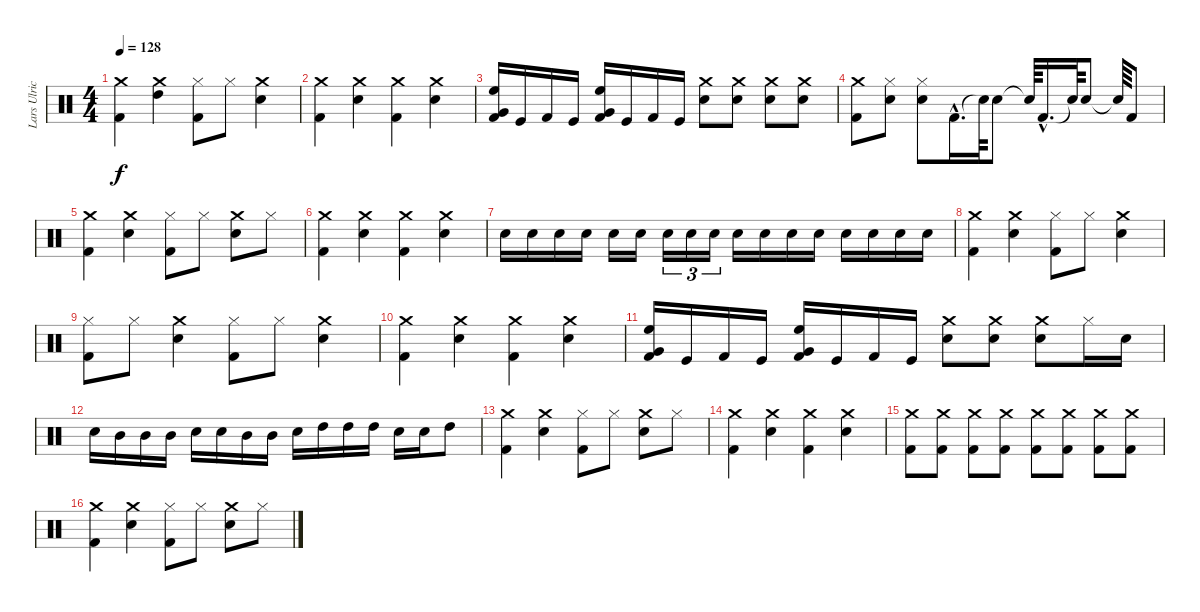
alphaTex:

\track ("Lars Ulrich (Drums)" "Lars Ulric") {instrument percussion}
\staff {score}
\articulation defaults
\ts (4 4)
\tempo 128
\clef neutral
\ks c
("Crash medium (hit)" "Kick (hit) 2").4{dy f} ("Crash medium (hit)" "High Tom (hit)").4 ("Kick (hit) 2" "Hi-Hat (closed)").8 "Hi-Hat (closed)".8 ("Crash medium (hit)" "Snare (hit) 2").4 |
("Kick (hit) 2" "Crash medium (hit)").4 ("Snare (hit) 2" "Crash medium (hit)").4 ("Kick (hit) 2" "Crash medium (hit)").4 ("Snare (hit) 2" "Crash medium (hit)").4 |
("Kick (hit) 2" "High Floor Tom (hit)" "Very Low Tom (hit)").16 "Kick (hit)".16 "Kick (hit) 2".16 "Kick (hit)".16 ("Kick (hit) 2" "High Floor Tom (hit)" "Very Low Tom (hit)").16 "Kick (hit)".16 "Kick (hit) 2".16 "Kick (hit)".16 ("Snare (hit) 2" "Crash medium (hit)").8 ("Snare (hit) 2" "Crash medium (hit)").8 ("Snare (hit) 2" "Crash medium (hit)").8 ("Snare (hit) 2" "Crash medium (hit)").8 |
("Kick (hit) 2" "Crash medium (hit)").8 ("Snare (hit) 2" "Hi-Hat (closed)").8 ("Hi-Hat (closed)" "Snare (hit) 2").8 "Kick (hit) 2"{hac}.16{d} "Snare (hit)"{t}.64 "Snare (hit) 2".8 "Snare (hit)"{t}.64 "Kick (hit) 2"{hac}.16{d} "Snare (hit)"{t}.64 "Snare (hit) 2".8 "Snare (hit)"{t}.64 "Kick (hit) 2".8 |
("Kick (hit) 2" "Crash medium (hit)").4 ("Snare (hit) 2" "Crash medium (hit)").4 ("Hi-Hat (closed)" "Kick (hit) 2").8 "Hi-Hat (closed)".8 ("Crash medium (hit)" "Snare (hit) 2").8 "Hi-Hat (closed)".8 |
("Kick (hit) 2" "Crash medium (hit)").4 ("Snare (hit) 2" "Crash medium (hit)").4 ("Kick (hit) 2" "Crash medium (hit)").4 ("Snare (hit) 2" "Crash medium (hit)").4 |
"Snare (hit) 2".16 "Snare (hit) 2".16 "Snare (hit) 2".16 "Snare (hit) 2".16 "Snare (hit) 2".16 "Snare (hit) 2".16 "Snare (hit) 2".16{tu (3 2)} "Snare (hit) 2".16{tu (3 2)} "Snare (hit) 2".16{tu (3 2)} "Snare (hit) 2".16 "Snare (hit) 2".16 "Snare (hit) 2".16 "Snare (hit) 2".16 "Snare (hit) 2".16 "Snare (hit) 2".16 "Snare (hit) 2".16 "Snare (hit) 2".16 |
("Kick (hit) 2" "Crash medium (hit)").4 ("Snare (hit) 2" "Crash medium (hit)").4 ("Hi-Hat (closed)" "Kick (hit) 2").8 "Hi-Hat (closed)".8 ("Crash medium (hit)" "Snare (hit) 2").4 |
("Kick (hit) 2" "Hi-Hat (closed)").8 "Hi-Hat (closed)".8 ("Crash medium (hit)" "Snare (hit) 2").4 ("Kick (hit) 2" "Hi-Hat (closed)").8 "Hi-Hat (closed)".8 ("Snare (hit) 2" "Crash medium (hit)").4 |
("Crash medium (hit)" "Kick (hit) 2").4 ("Crash medium (hit)" "Snare (hit) 2").4 ("Crash medium (hit)" "Kick (hit) 2").4 ("Crash medium (hit)" "Snare (hit) 2").4 |
("Kick (hit) 2" "High Floor Tom (hit)" "Very Low Tom (hit)").16 "Kick (hit)".16 "Kick (hit) 2".16 "Kick (hit)".16 ("Kick (hit) 2" "High Floor Tom (hit)" "Very Low Tom (hit)").16 "Kick (hit)".16 "Kick (hit) 2".16 "Kick (hit)".16 ("Crash medium (hit)" "Snare (hit) 2").8 ("Crash medium (hit)" "Snare (hit) 2").8 ("Crash medium (hit)" "Snare (hit) 2").8 "Hi-Hat (closed)".16 "Snare (hit) 2".16 |
"Snare (hit) 2".16 "Mid Tom (hit)".16 "Mid Tom (hit)".16 "Mid Tom (hit)".16 "Snare (hit) 2".16 "Snare (hit) 2".16 "Mid Tom (hit)".16 "Mid Tom (hit)".16 "Snare (hit) 2".16 "High Tom (hit)".16 "High Tom (hit)".16 "High Tom (hit)".16 "Snare (hit) 2".16 "Snare (hit) 2".16 "High Tom (hit)".8 |
("Crash medium (hit)" "Kick (hit) 2").4 ("Crash medium (hit)" "Snare (hit) 2").4 ("Kick (hit) 2" "Hi-Hat (closed)").8 "Hi-Hat (closed)".8 ("Crash medium (hit)" "Snare (hit) 2").8 "Hi-Hat (closed)".8 |
("Kick (hit) 2" "Crash medium (hit)").4 ("Snare (hit) 2" "Crash medium (hit)").4 ("Kick (hit) 2" "Crash medium (hit)").4 ("Snare (hit) 2" "Crash medium (hit)").4 |
("Kick (hit) 2" "Crash medium (hit)").8 ("Kick (hit) 2" "Crash medium (hit)").8 ("Kick (hit) 2" "Crash medium (hit)").8 ("Kick (hit) 2" "Crash medium (hit)").8 ("Kick (hit) 2" "Crash medium (hit)").8 ("Kick (hit) 2" "Crash medium (hit)").8 ("Kick (hit) 2" "Crash medium (hit)").8 ("Kick (hit) 2" "Crash medium (hit)").8 |
("Crash medium (hit)" "Kick (hit) 2").4 ("Crash medium (hit)" "Snare (hit) 2").4 ("Kick (hit) 2" "Hi-Hat (closed)").8 "Hi-Hat (closed)".8 ("Crash medium (hit)" "Snare (hit) 2").8 "Hi-Hat (closed)".8
